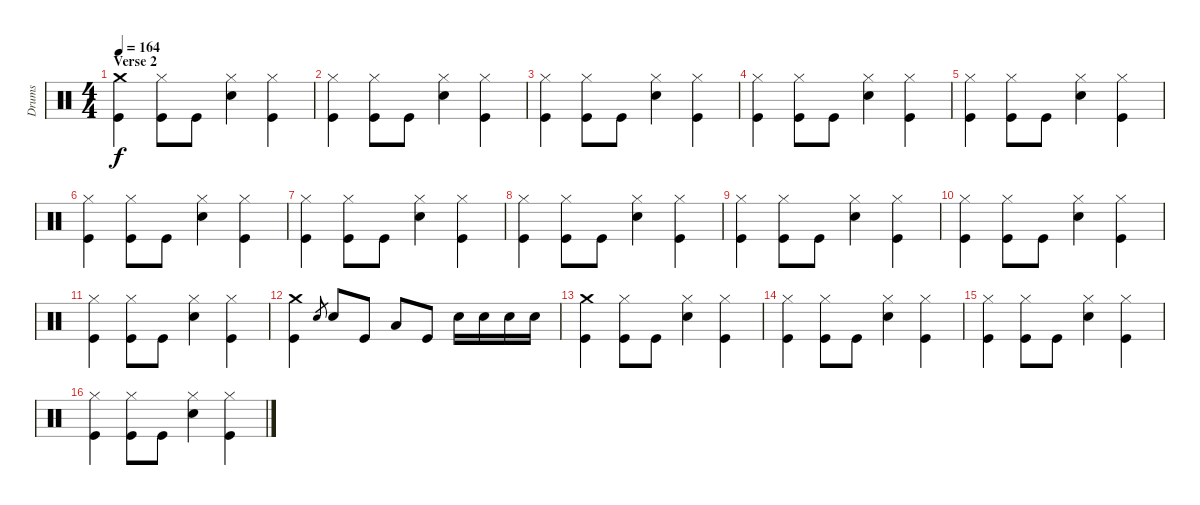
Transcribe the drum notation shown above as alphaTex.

\track ("Drums" "Drums") {instrument percussion}
\staff {score}
\articulation defaults
\ts (4 4)
\section ("" "Verse 2")
\tempo 164
\clef neutral
\ks c
("Crash medium (hit)" "Kick (hit)").4{dy f} ("Hi-Hat (closed)" "Kick (hit)").8 "Kick (hit)".8 ("Hi-Hat (closed)" "Electric Snare (hit)").4 ("Hi-Hat (closed)" "Kick (hit)").4 |
("Hi-Hat (closed)" "Kick (hit)").4 ("Hi-Hat (closed)" "Kick (hit)").8 "Kick (hit)".8 ("Hi-Hat (closed)" "Electric Snare (hit)").4 ("Hi-Hat (closed)" "Kick (hit)").4 |
("Hi-Hat (closed)" "Kick (hit)").4 ("Hi-Hat (closed)" "Kick (hit)").8 "Kick (hit)".8 ("Hi-Hat (closed)" "Electric Snare (hit)").4 ("Hi-Hat (closed)" "Kick (hit)").4 |
("Hi-Hat (closed)" "Kick (hit)").4 ("Hi-Hat (closed)" "Kick (hit)").8 "Kick (hit)".8 ("Hi-Hat (closed)" "Electric Snare (hit)").4 ("Hi-Hat (closed)" "Kick (hit)").4 |
("Hi-Hat (closed)" "Kick (hit)").4 ("Hi-Hat (closed)" "Kick (hit)").8 "Kick (hit)".8 ("Hi-Hat (closed)" "Electric Snare (hit)").4 ("Hi-Hat (closed)" "Kick (hit)").4 |
("Hi-Hat (closed)" "Kick (hit)").4 ("Hi-Hat (closed)" "Kick (hit)").8 "Kick (hit)".8 ("Hi-Hat (closed)" "Electric Snare (hit)").4 ("Hi-Hat (closed)" "Kick (hit)").4 |
("Hi-Hat (closed)" "Kick (hit)").4 ("Hi-Hat (closed)" "Kick (hit)").8 "Kick (hit)".8 ("Hi-Hat (closed)" "Electric Snare (hit)").4 ("Hi-Hat (closed)" "Kick (hit)").4 |
("Hi-Hat (closed)" "Kick (hit)").4 ("Hi-Hat (closed)" "Kick (hit)").8 "Kick (hit)".8 ("Hi-Hat (closed)" "Electric Snare (hit)").4 ("Hi-Hat (closed)" "Kick (hit)").4 |
("Hi-Hat (closed)" "Kick (hit)").4 ("Hi-Hat (closed)" "Kick (hit)").8 "Kick (hit)".8 ("Hi-Hat (closed)" "Electric Snare (hit)").4 ("Hi-Hat (closed)" "Kick (hit)").4 |
("Hi-Hat (closed)" "Kick (hit)").4 ("Hi-Hat (closed)" "Kick (hit)").8 "Kick (hit)".8 ("Hi-Hat (closed)" "Electric Snare (hit)").4 ("Hi-Hat (closed)" "Kick (hit)").4 |
("Hi-Hat (closed)" "Kick (hit)").4 ("Hi-Hat (closed)" "Kick (hit)").8 "Kick (hit)".8 ("Hi-Hat (closed)" "Electric Snare (hit)").4 ("Hi-Hat (closed)" "Kick (hit)").4 |
("Crash medium (hit)" "Kick (hit)").4 "Electric Snare (hit)".8{gr} "Electric Snare (hit)".8 "Kick (hit)".8 "Low Floor Tom (hit)".8 "Kick (hit)".8 "Electric Snare (hit)".16 "Electric Snare (hit)".16 "Electric Snare (hit)".16 "Electric Snare (hit)".16 |
("Crash medium (hit)" "Kick (hit)").4 ("Hi-Hat (closed)" "Kick (hit)").8 "Kick (hit)".8 ("Hi-Hat (closed)" "Electric Snare (hit)").4 ("Hi-Hat (closed)" "Kick (hit)").4 |
("Hi-Hat (closed)" "Kick (hit)").4 ("Hi-Hat (closed)" "Kick (hit)").8 "Kick (hit)".8 ("Hi-Hat (closed)" "Electric Snare (hit)").4 ("Hi-Hat (closed)" "Kick (hit)").4 |
("Hi-Hat (closed)" "Kick (hit)").4 ("Hi-Hat (closed)" "Kick (hit)").8 "Kick (hit)".8 ("Hi-Hat (closed)" "Electric Snare (hit)").4 ("Hi-Hat (closed)" "Kick (hit)").4 |
("Hi-Hat (closed)" "Kick (hit)").4 ("Hi-Hat (closed)" "Kick (hit)").8 "Kick (hit)".8 ("Hi-Hat (closed)" "Electric Snare (hit)").4 ("Hi-Hat (closed)" "Kick (hit)").4
